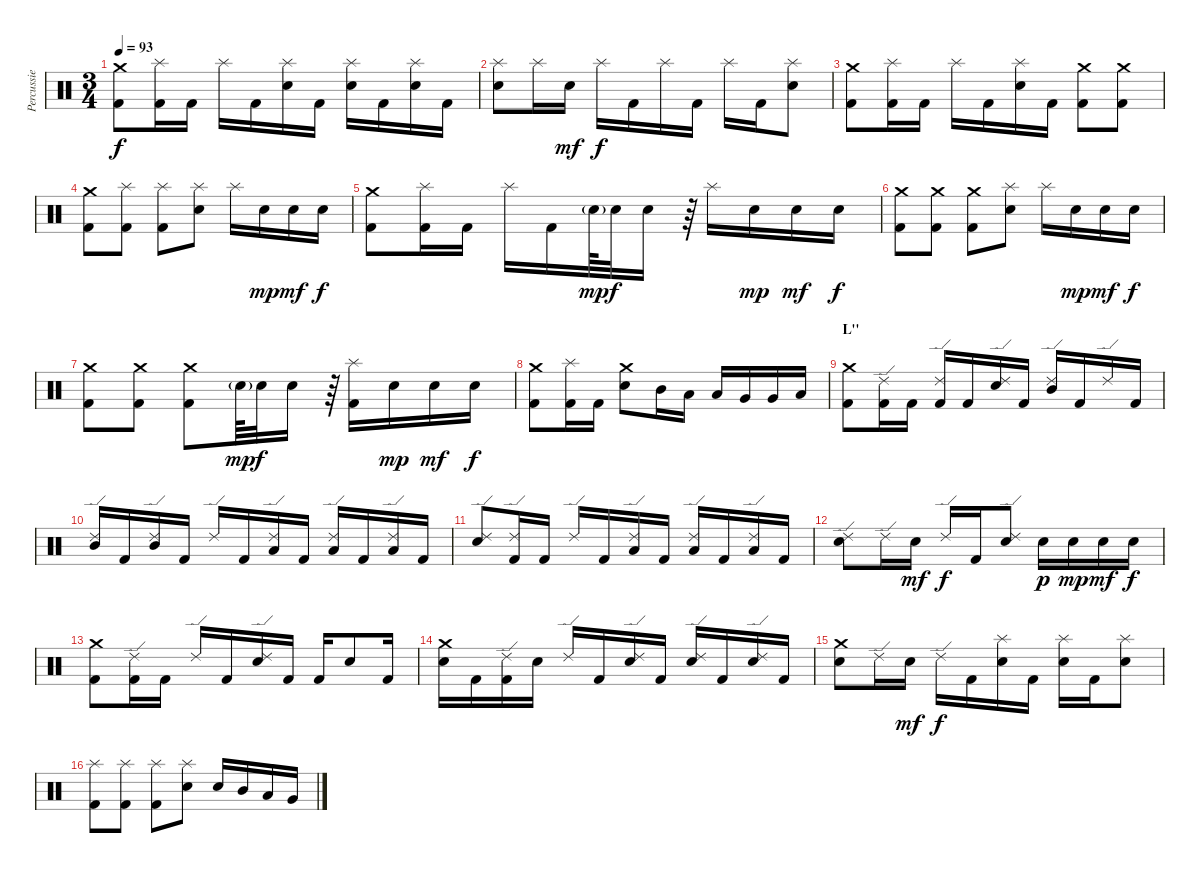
\track ("Percussie" "Percussie") {instrument percussion}
\staff {score}
\articulation defaults
\ts (3 4)
\tempo 93
\clef neutral
\ks c
("Crash medium (hit)" "Kick (hit) 2").8{dy f} ("Splash (hit)" "Kick (hit) 2").16 "Kick (hit) 2".16 "Splash (hit)".16 "Kick (hit) 2".16 ("Splash (hit)" "Electric Snare (hit)").16 "Kick (hit) 2".16 ("Splash (hit)" "Electric Snare (hit)").16 "Kick (hit) 2".16 ("Splash (hit)" "Electric Snare (hit)").16 "Kick (hit) 2".16 |
("Splash (hit)" "Electric Snare (hit)").8 "Splash (hit)".16 "Electric Snare (hit)".16{dy mf} "Splash (hit)".16{dy f} "Kick (hit) 2".16 "Splash (hit)".16 "Kick (hit) 2".16 "Splash (hit)".16 "Kick (hit) 2".16 ("Splash (hit)" "Electric Snare (hit)").8 |
("Crash medium (hit)" "Kick (hit) 2").8 ("Splash (hit)" "Kick (hit) 2").16 "Kick (hit) 2".16 "Splash (hit)".16 "Kick (hit) 2".16 ("Splash (hit)" "Electric Snare (hit)").16 "Kick (hit) 2".16 ("Crash medium (hit)" "Kick (hit) 2").8 ("Crash medium (hit)" "Kick (hit) 2").8 |
("Crash medium (hit)" "Kick (hit) 2").8 ("Splash (hit)" "Kick (hit) 2").8 ("Splash (hit)" "Kick (hit) 2").8 ("Splash (hit)" "Electric Snare (hit)").8 "Splash (hit)".16 "Electric Snare (hit)".16{dy mp} "Electric Snare (hit)".16{dy mf} "Electric Snare (hit)".16{dy f} |
("Crash medium (hit)" "Kick (hit) 2").8 ("Splash (hit)" "Kick (hit) 2").16 "Kick (hit) 2".16 "Splash (hit)".16 "Kick (hit) 2".16 "Electric Snare (hit)"{g}.64{dy mp} "Electric Snare (hit)".32{dy f} "Electric Snare (hit)".16 r.64 "Splash (hit)".16 "Electric Snare (hit)".16{dy mp} "Electric Snare (hit)".16{dy mf} "Electric Snare (hit)".16{dy f} |
("Crash medium (hit)" "Kick (hit) 2").8 ("Crash medium (hit)" "Kick (hit) 2").8 ("Crash medium (hit)" "Kick (hit) 2").8 ("Splash (hit)" "Electric Snare (hit)").8 "Splash (hit)".16 "Electric Snare (hit)".16{dy mp} "Electric Snare (hit)".16{dy mf} "Electric Snare (hit)".16{dy f} |
("Crash medium (hit)" "Kick (hit) 2").8 ("Crash medium (hit)" "Kick (hit) 2").8 ("Crash medium (hit)" "Kick (hit) 2").8 "Electric Snare (hit)"{g}.64{dy mp} "Electric Snare (hit)".32{dy f} "Electric Snare (hit)".16 r.64 ("Splash (hit)" "Kick (hit) 2").16 "Electric Snare (hit)".16{dy mp} "Electric Snare (hit)".16{dy mf} "Electric Snare (hit)".16{dy f} |
("Crash medium (hit)" "Kick (hit) 2").8 ("Splash (hit)" "Kick (hit) 2").16 "Kick (hit) 2".16 ("Crash medium (hit)" "Electric Snare (hit)").8 "Mid Tom (hit)".16 "Low Tom (hit)".16 "Low Tom (hit)".16 "Very Low Tom (hit)".16 "Very Low Tom (hit)".16 "Low Floor Tom (hit)".16 |
\section ("" "L''")
("Crash medium (hit)" "Kick (hit) 2").8 ("Ride (edge) 2" "Kick (hit) 2").16 "Kick (hit) 2".16 ("Ride (edge) 2" "Kick (hit) 2").16 "Kick (hit) 2".16 ("Ride (edge) 2" "Electric Snare (hit)").16 "Kick (hit) 2".16 ("Ride (edge) 2" "Mid Tom (hit)").16 "Kick (hit) 2".16 "Ride (edge) 2".16 "Kick (hit) 2".16 |
("Ride (edge) 2" "Mid Tom (hit)").16 "Kick (hit) 2".16 ("Ride (edge) 2" "Mid Tom (hit)").16 "Kick (hit) 2".16 "Ride (edge) 2".16 "Kick (hit) 2".16 ("Ride (edge) 2" "Low Tom (hit)").16 "Kick (hit) 2".16 ("Ride (edge) 2" "Low Tom (hit)").16 "Kick (hit) 2".16 ("Ride (edge) 2" "Low Tom (hit)").16 "Kick (hit) 2".16 |
("Ride (edge) 2" "Electric Snare (hit)").8 ("Ride (edge) 2" "Kick (hit) 2").16 "Kick (hit) 2".16 "Ride (edge) 2".16 "Kick (hit) 2".16 ("Ride (edge) 2" "Low Tom (hit)").16 "Kick (hit) 2".16 ("Ride (edge) 2" "Low Tom (hit)").16 "Kick (hit) 2".16 ("Ride (edge) 2" "Low Tom (hit)").16 "Kick (hit) 2".16 |
("Ride (edge) 2" "Electric Snare (hit)").8 "Ride (edge) 2".16 "Electric Snare (hit)".16{dy mf} "Ride (edge) 2".16{dy f} "Kick (hit) 2".16 ("Ride (edge) 2" "Electric Snare (hit)").8 "Electric Snare (hit)".16{dy p} "Electric Snare (hit)".16{dy mp} "Electric Snare (hit)".16{dy mf} "Electric Snare (hit)".16{dy f} |
("Crash medium (hit)" "Kick (hit) 2").8 ("Ride (edge) 2" "Kick (hit) 2").16 "Kick (hit) 2".16 "Ride (edge) 2".16 "Kick (hit) 2".16 ("Ride (edge) 2" "Electric Snare (hit)").16 "Kick (hit) 2".16 "Kick (hit) 2".16 "Electric Snare (hit)".8 "Kick (hit) 2".16 |
("Crash medium (hit)" "Electric Snare (hit)").16 "Kick (hit) 2".16 ("Ride (edge) 2" "Kick (hit) 2").16 "Electric Snare (hit)".16 "Ride (edge) 2".16 "Kick (hit) 2".16 ("Ride (edge) 2" "Electric Snare (hit)").16 "Kick (hit) 2".16 ("Ride (edge) 2" "Electric Snare (hit)").16 "Kick (hit) 2".16 ("Ride (edge) 2" "Electric Snare (hit)").16 "Kick (hit) 2".16 |
("Crash medium (hit)" "Electric Snare (hit)").8 "Ride (edge) 2".16 "Electric Snare (hit)".16{dy mf} "Ride (edge) 2".16{dy f} "Kick (hit) 2".16 ("Splash (hit)" "Electric Snare (hit)").16 "Kick (hit) 2".16 ("Splash (hit)" "Electric Snare (hit)").16 "Kick (hit) 2".16 ("Splash (hit)" "Electric Snare (hit)").8 |
("Splash (hit)" "Kick (hit) 2").8 ("Splash (hit)" "Kick (hit) 2").8 ("Splash (hit)" "Kick (hit) 2").8 ("Splash (hit)" "Electric Snare (hit)").8 "Electric Snare (hit)".16 "Mid Tom (hit)".16 "Low Tom (hit)".16 "Very Low Tom (hit)".16
